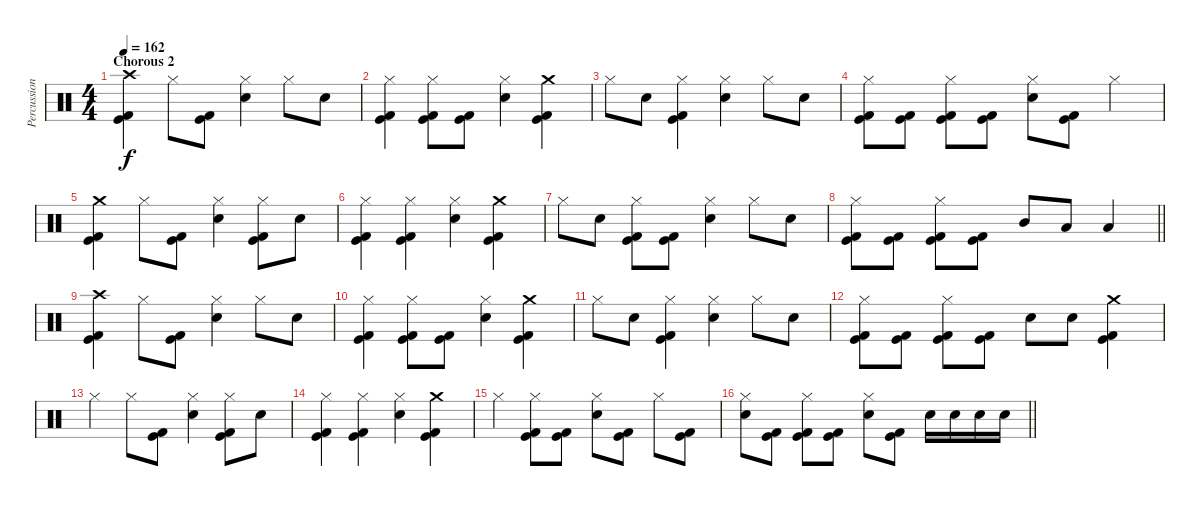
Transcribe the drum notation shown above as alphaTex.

\track ("Percussion" "Percussion") {instrument percussion}
\staff {score}
\articulation defaults
\ts (4 4)
\section ("" "Chorous 2")
\tempo 162
\clef neutral
\ks c
("Crash high (hit)" "Kick (hit)" "Kick (hit) 2").4{dy f} "Hi-Hat (closed)".8 ("Kick (hit)" "Kick (hit) 2").8 ("Hi-Hat (closed)" "Electric Snare (hit)").4 "Hi-Hat (closed)".8 "Electric Snare (hit)".8 |
("Hi-Hat (closed)" "Kick (hit)" "Kick (hit) 2").4 ("Hi-Hat (closed)" "Kick (hit)" "Kick (hit) 2").8 ("Kick (hit)" "Kick (hit) 2").8 ("Hi-Hat (closed)" "Electric Snare (hit)").4 ("Crash medium (hit)" "Kick (hit)" "Kick (hit) 2").4 |
"Hi-Hat (closed)".8 "Electric Snare (hit)".8 ("Hi-Hat (closed)" "Kick (hit)" "Kick (hit) 2").4 ("Hi-Hat (closed)" "Electric Snare (hit)").4 "Hi-Hat (closed)".8 "Electric Snare (hit)".8 |
("Hi-Hat (closed)" "Kick (hit)" "Kick (hit) 2").8 ("Kick (hit)" "Kick (hit) 2").8 ("Hi-Hat (closed)" "Kick (hit)" "Kick (hit) 2").8 ("Kick (hit)" "Kick (hit) 2").8 ("Hi-Hat (closed)" "Electric Snare (hit)").8 ("Kick (hit)" "Kick (hit) 2").8 "Hi-Hat (closed)".4 |
("Crash medium (hit)" "Kick (hit)" "Kick (hit) 2").4 "Hi-Hat (closed)".8 ("Kick (hit)" "Kick (hit) 2").8 ("Hi-Hat (closed)" "Electric Snare (hit)").4 ("Hi-Hat (closed)" "Kick (hit)" "Kick (hit) 2").8 "Electric Snare (hit)".8 |
("Hi-Hat (closed)" "Kick (hit)" "Kick (hit) 2").4 ("Hi-Hat (closed)" "Kick (hit)" "Kick (hit) 2").4 ("Hi-Hat (closed)" "Electric Snare (hit)").4 ("Crash medium (hit)" "Kick (hit)" "Kick (hit) 2").4 |
"Hi-Hat (closed)".8 "Electric Snare (hit)".8 ("Hi-Hat (closed)" "Kick (hit)" "Kick (hit) 2").8 ("Kick (hit)" "Kick (hit) 2").8 ("Hi-Hat (closed)" "Electric Snare (hit)").4 "Hi-Hat (closed)".8 "Electric Snare (hit)".8 |
\barLineRight lightlight
("Hi-Hat (closed)" "Kick (hit)" "Kick (hit) 2").8 ("Kick (hit)" "Kick (hit) 2").8 ("Hi-Hat (closed)" "Kick (hit)" "Kick (hit) 2").8 ("Kick (hit)" "Kick (hit) 2").8 "Mid Tom (hit)".8 "Low Tom (hit)".8 "Low Tom (hit)".4 |
("Crash high (hit)" "Kick (hit)" "Kick (hit) 2").4 "Hi-Hat (closed)".8 ("Kick (hit)" "Kick (hit) 2").8 ("Hi-Hat (closed)" "Electric Snare (hit)").4 "Hi-Hat (closed)".8 "Electric Snare (hit)".8 |
("Hi-Hat (closed)" "Kick (hit)" "Kick (hit) 2").4 ("Hi-Hat (closed)" "Kick (hit)" "Kick (hit) 2").8 ("Kick (hit)" "Kick (hit) 2").8 ("Hi-Hat (closed)" "Electric Snare (hit)").4 ("Crash medium (hit)" "Kick (hit)" "Kick (hit) 2").4 |
"Hi-Hat (closed)".8 "Electric Snare (hit)".8 ("Hi-Hat (closed)" "Kick (hit)" "Kick (hit) 2").4 ("Hi-Hat (closed)" "Electric Snare (hit)").4 "Hi-Hat (closed)".8 "Electric Snare (hit)".8 |
("Hi-Hat (closed)" "Kick (hit)" "Kick (hit) 2").8 ("Kick (hit)" "Kick (hit) 2").8 ("Hi-Hat (closed)" "Kick (hit)" "Kick (hit) 2").8 ("Kick (hit)" "Kick (hit) 2").8 "Electric Snare (hit)".8 "Electric Snare (hit)".8 ("Crash medium (hit)" "Kick (hit)" "Kick (hit) 2").4 |
"Hi-Hat (closed)".4 "Hi-Hat (closed)".8 ("Kick (hit)" "Kick (hit) 2").8 ("Hi-Hat (closed)" "Electric Snare (hit)").4 ("Hi-Hat (closed)" "Kick (hit)" "Kick (hit) 2").8 "Electric Snare (hit)".8 |
("Hi-Hat (closed)" "Kick (hit)" "Kick (hit) 2").4 ("Hi-Hat (closed)" "Kick (hit)" "Kick (hit) 2").4 ("Hi-Hat (closed)" "Electric Snare (hit)").4 ("Crash medium (hit)" "Kick (hit)" "Kick (hit) 2").4 |
"Hi-Hat (closed)".4 ("Hi-Hat (closed)" "Kick (hit)" "Kick (hit) 2").8 ("Kick (hit)" "Kick (hit) 2").8 ("Hi-Hat (closed)" "Electric Snare (hit)").8 ("Kick (hit)" "Kick (hit) 2").8 "Hi-Hat (closed)".8 ("Kick (hit)" "Kick (hit) 2").8 |
\barLineRight lightlight
("Hi-Hat (closed)" "Electric Snare (hit)").8 ("Kick (hit)" "Kick (hit) 2").8 ("Hi-Hat (closed)" "Kick (hit)" "Kick (hit) 2").8 ("Kick (hit)" "Kick (hit) 2").8 ("Hi-Hat (closed)" "Electric Snare (hit)").8 ("Kick (hit)" "Kick (hit) 2").8 "Electric Snare (hit)".16 "Electric Snare (hit)".16 "Electric Snare (hit)".16 "Electric Snare (hit)".16
